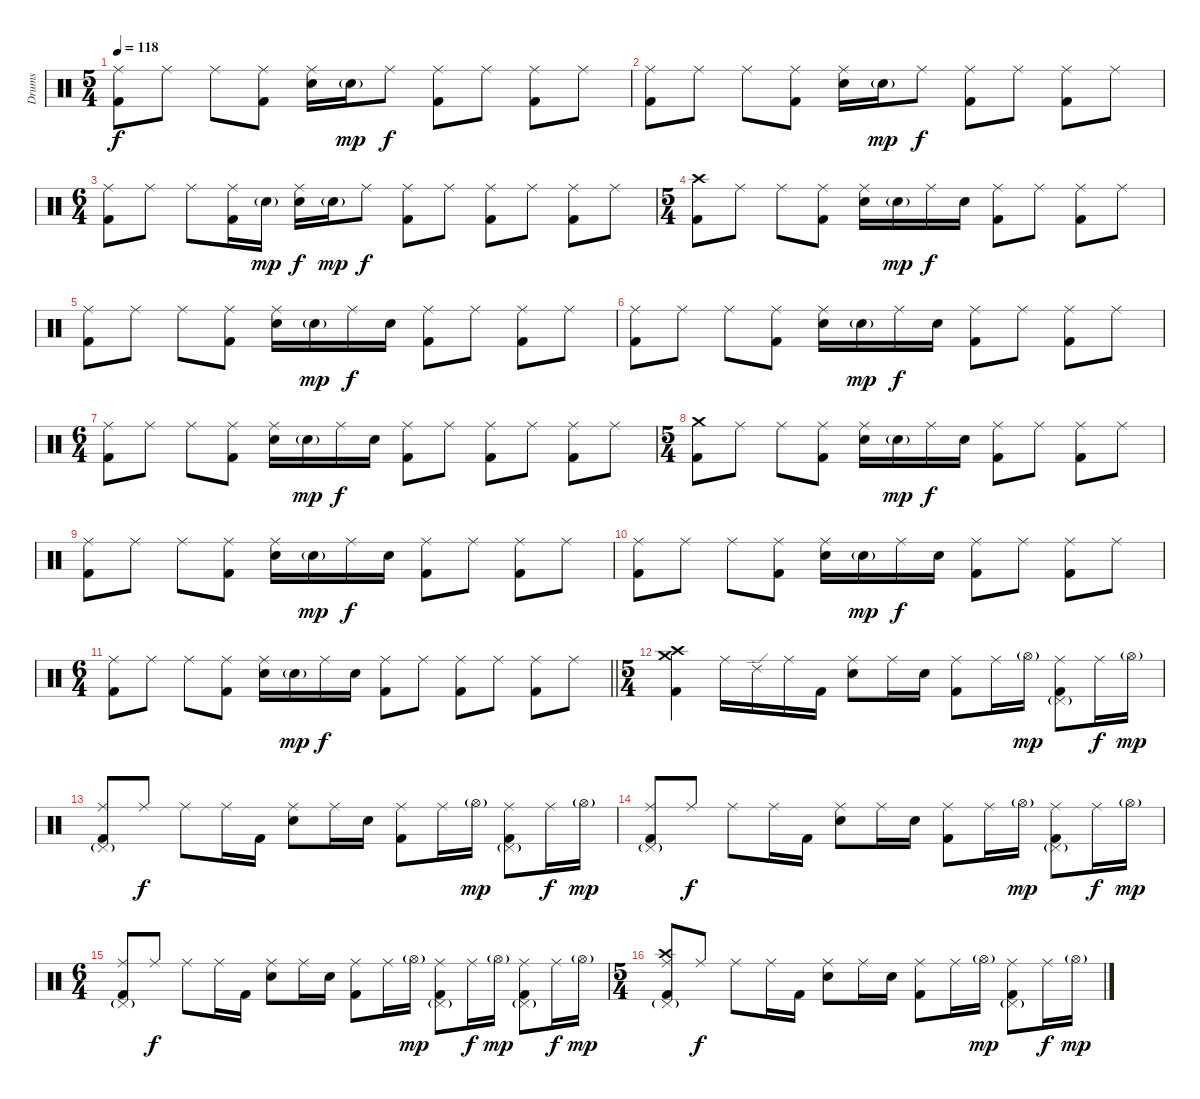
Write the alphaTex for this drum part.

\track ("Drums" "Drums") {instrument percussion}
\staff {score}
\articulation defaults
\ts (5 4)
\tempo 118
\clef neutral
\ks c
("Ride (middle)" "Kick (hit) 2").8{dy f} "Ride (middle)".8 "Ride (middle)".8 ("Ride (middle)" "Kick (hit) 2").8 ("Ride (middle)" "Electric Snare (hit)").16 "Electric Snare (hit)"{g}.16{dy mp} "Ride (middle)".8{dy f} ("Ride (middle)" "Kick (hit) 2").8 "Ride (middle)".8 ("Ride (middle)" "Kick (hit) 2").8 "Ride (middle)".8 |
("Ride (middle)" "Kick (hit) 2").8 "Ride (middle)".8 "Ride (middle)".8 ("Ride (middle)" "Kick (hit) 2").8 ("Ride (middle)" "Electric Snare (hit)").16 "Electric Snare (hit)"{g}.16{dy mp} "Ride (middle)".8{dy f} ("Ride (middle)" "Kick (hit) 2").8 "Ride (middle)".8 ("Ride (middle)" "Kick (hit) 2").8 "Ride (middle)".8 |
\ts (6 4)
("Ride (middle)" "Kick (hit) 2").8 "Ride (middle)".8 "Ride (middle)".8 ("Ride (middle)" "Kick (hit) 2").16 "Electric Snare (hit)"{g}.16{dy mp} ("Ride (middle)" "Electric Snare (hit)").16{dy f} "Electric Snare (hit)"{g}.16{dy mp} "Ride (middle)".8{dy f} ("Ride (middle)" "Kick (hit) 2").8 "Ride (middle)".8 ("Ride (middle)" "Kick (hit) 2").8 "Ride (middle)".8 ("Ride (middle)" "Kick (hit) 2").8 "Ride (middle)".8 |
\ts (5 4)
("Crash high (hit)" "Kick (hit) 2").8 "Ride (middle)".8 "Ride (middle)".8 ("Ride (middle)" "Kick (hit) 2").8 ("Ride (middle)" "Electric Snare (hit)").16 "Electric Snare (hit)"{g}.16{dy mp} "Ride (middle)".16{dy f} "Electric Snare (hit)".16 ("Ride (middle)" "Kick (hit) 2").8 "Ride (middle)".8 ("Ride (middle)" "Kick (hit) 2").8 "Ride (middle)".8 |
("Ride (middle)" "Kick (hit) 2").8 "Ride (middle)".8 "Ride (middle)".8 ("Ride (middle)" "Kick (hit) 2").8 ("Ride (middle)" "Electric Snare (hit)").16 "Electric Snare (hit)"{g}.16{dy mp} "Ride (middle)".16{dy f} "Electric Snare (hit)".16 ("Ride (middle)" "Kick (hit) 2").8 "Ride (middle)".8 ("Ride (middle)" "Kick (hit) 2").8 "Ride (middle)".8 |
("Ride (middle)" "Kick (hit) 2").8 "Ride (middle)".8 "Ride (middle)".8 ("Ride (middle)" "Kick (hit) 2").8 ("Ride (middle)" "Electric Snare (hit)").16 "Electric Snare (hit)"{g}.16{dy mp} "Ride (middle)".16{dy f} "Electric Snare (hit)".16 ("Ride (middle)" "Kick (hit) 2").8 "Ride (middle)".8 ("Ride (middle)" "Kick (hit) 2").8 "Ride (middle)".8 |
\ts (6 4)
("Ride (middle)" "Kick (hit) 2").8 "Ride (middle)".8 "Ride (middle)".8 ("Ride (middle)" "Kick (hit) 2").8 ("Ride (middle)" "Electric Snare (hit)").16 "Electric Snare (hit)"{g}.16{dy mp} "Ride (middle)".16{dy f} "Electric Snare (hit)".16 ("Ride (middle)" "Kick (hit) 2").8 "Ride (middle)".8 ("Ride (middle)" "Kick (hit) 2").8 "Ride (middle)".8 ("Ride (middle)" "Kick (hit) 2").8 "Ride (middle)".8 |
\ts (5 4)
("Crash medium (hit)" "Kick (hit) 2").8 "Ride (middle)".8 "Ride (middle)".8 ("Ride (middle)" "Kick (hit) 2").8 ("Ride (middle)" "Electric Snare (hit)").16 "Electric Snare (hit)"{g}.16{dy mp} "Ride (middle)".16{dy f} "Electric Snare (hit)".16 ("Ride (middle)" "Kick (hit) 2").8 "Ride (middle)".8 ("Ride (middle)" "Kick (hit) 2").8 "Ride (middle)".8 |
("Ride (middle)" "Kick (hit) 2").8 "Ride (middle)".8 "Ride (middle)".8 ("Ride (middle)" "Kick (hit) 2").8 ("Ride (middle)" "Electric Snare (hit)").16 "Electric Snare (hit)"{g}.16{dy mp} "Ride (middle)".16{dy f} "Electric Snare (hit)".16 ("Ride (middle)" "Kick (hit) 2").8 "Ride (middle)".8 ("Ride (middle)" "Kick (hit) 2").8 "Ride (middle)".8 |
("Ride (middle)" "Kick (hit) 2").8 "Ride (middle)".8 "Ride (middle)".8 ("Ride (middle)" "Kick (hit) 2").8 ("Ride (middle)" "Electric Snare (hit)").16 "Electric Snare (hit)"{g}.16{dy mp} "Ride (middle)".16{dy f} "Electric Snare (hit)".16 ("Ride (middle)" "Kick (hit) 2").8 "Ride (middle)".8 ("Ride (middle)" "Kick (hit) 2").8 "Ride (middle)".8 |
\ts (6 4)
\barLineRight lightlight
("Ride (middle)" "Kick (hit) 2").8 "Ride (middle)".8 "Ride (middle)".8 ("Ride (middle)" "Kick (hit) 2").8 ("Ride (middle)" "Electric Snare (hit)").16 "Electric Snare (hit)"{g}.16{dy mp} "Ride (middle)".16{dy f} "Electric Snare (hit)".16 ("Ride (middle)" "Kick (hit) 2").8 "Ride (middle)".8 ("Ride (middle)" "Kick (hit) 2").8 "Ride (middle)".8 ("Ride (middle)" "Kick (hit) 2").8 "Ride (middle)".8 |
\ts (5 4)
("Crash medium (hit)" "Crash high (hit)" "Kick (hit) 2").4 "Ride (middle)".16 "Ride (edge) 2".16 "Ride (middle)".16 "Kick (hit) 2".16 ("Ride (middle)" "Electric Snare (hit)").8 "Ride (middle)".16 "Electric Snare (hit)".16 ("Ride (middle)" "Kick (hit) 2").8 "Ride (middle)".16 "Hi-Hat (open)"{g}.16{dy mp} ("Ride (middle)" "Pedal Hi-Hat (hit)"{g} "Kick (hit) 2").8 "Ride (middle)".16{dy f} "Hi-Hat (open)"{g}.16{dy mp} |
("Ride (middle)" "Pedal Hi-Hat (hit)"{g} "Kick (hit) 2").8 "Ride (middle)".8{dy f} "Ride (middle)".8 "Ride (middle)".16 "Kick (hit) 2".16 ("Ride (middle)" "Electric Snare (hit)").8 "Ride (middle)".16 "Electric Snare (hit)".16 ("Ride (middle)" "Kick (hit) 2").8 "Ride (middle)".16 "Hi-Hat (open)"{g}.16{dy mp} ("Ride (middle)" "Pedal Hi-Hat (hit)"{g} "Kick (hit) 2").8 "Ride (middle)".16{dy f} "Hi-Hat (open)"{g}.16{dy mp} |
("Ride (middle)" "Pedal Hi-Hat (hit)"{g} "Kick (hit) 2").8 "Ride (middle)".8{dy f} "Ride (middle)".8 "Ride (middle)".16 "Kick (hit) 2".16 ("Ride (middle)" "Electric Snare (hit)").8 "Ride (middle)".16 "Electric Snare (hit)".16 ("Ride (middle)" "Kick (hit) 2").8 "Ride (middle)".16 "Hi-Hat (open)"{g}.16{dy mp} ("Ride (middle)" "Pedal Hi-Hat (hit)"{g} "Kick (hit) 2").8 "Ride (middle)".16{dy f} "Hi-Hat (open)"{g}.16{dy mp} |
\ts (6 4)
("Ride (middle)" "Pedal Hi-Hat (hit)"{g} "Kick (hit) 2").8 "Ride (middle)".8{dy f} "Ride (middle)".8 "Ride (middle)".16 "Kick (hit) 2".16 ("Ride (middle)" "Electric Snare (hit)").8 "Ride (middle)".16 "Electric Snare (hit)".16 ("Ride (middle)" "Kick (hit) 2").8 "Ride (middle)".16 "Hi-Hat (open)"{g}.16{dy mp} ("Ride (middle)" "Pedal Hi-Hat (hit)"{g} "Kick (hit) 2").8 "Ride (middle)".16{dy f} "Hi-Hat (open)"{g}.16{dy mp} ("Ride (middle)" "Pedal Hi-Hat (hit)"{g} "Kick (hit) 2").8 "Ride (middle)".16{dy f} "Hi-Hat (open)"{g}.16{dy mp} |
\ts (5 4)
("Crash high (hit)" "Ride (middle)" "Pedal Hi-Hat (hit)"{g} "Kick (hit) 2").8 "Ride (middle)".8{dy f} "Ride (middle)".8 "Ride (middle)".16 "Kick (hit) 2".16 ("Ride (middle)" "Electric Snare (hit)").8 "Ride (middle)".16 "Electric Snare (hit)".16 ("Ride (middle)" "Kick (hit) 2").8 "Ride (middle)".16 "Hi-Hat (open)"{g}.16{dy mp} ("Ride (middle)" "Pedal Hi-Hat (hit)"{g} "Kick (hit) 2").8 "Ride (middle)".16{dy f} "Hi-Hat (open)"{g}.16{dy mp}
